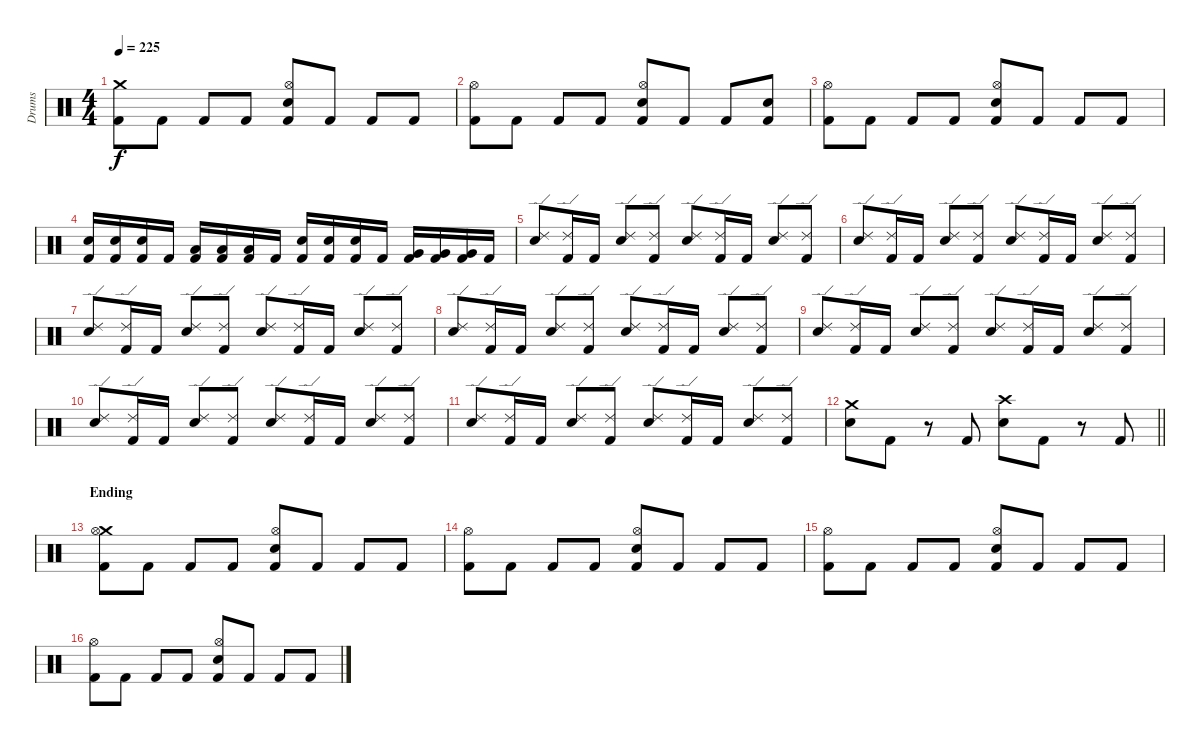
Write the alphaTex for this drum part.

\track ("Drums" "Drums") {instrument percussion}
\staff {score}
\articulation defaults
\ts (4 4)
\tempo 225
\clef neutral
\ks c
("Crash medium (hit)" "Kick (hit) 2").8{dy f} "Kick (hit) 2".8 "Kick (hit) 2".8 "Kick (hit) 2".8 ("Hi-Hat (open)" "Electric Snare (hit)" "Kick (hit) 2").8 "Kick (hit) 2".8 "Kick (hit) 2".8 "Kick (hit) 2".8 |
("Hi-Hat (open)" "Kick (hit) 2").8 "Kick (hit) 2".8 "Kick (hit) 2".8 "Kick (hit) 2".8 ("Hi-Hat (open)" "Electric Snare (hit)" "Kick (hit) 2").8 "Kick (hit) 2".8 "Kick (hit) 2".8 ("Electric Snare (hit)" "Kick (hit) 2").8 |
("Hi-Hat (open)" "Kick (hit) 2").8 "Kick (hit) 2".8 "Kick (hit) 2".8 "Kick (hit) 2".8 ("Hi-Hat (open)" "Electric Snare (hit)" "Kick (hit) 2").8 "Kick (hit) 2".8 "Kick (hit) 2".8 "Kick (hit) 2".8 |
("Electric Snare (hit)" "Kick (hit) 2").16 ("Electric Snare (hit)" "Kick (hit) 2").16 ("Electric Snare (hit)" "Kick (hit) 2").16 "Kick (hit) 2".16 ("Low Tom (hit)" "Kick (hit) 2").16 ("Low Tom (hit)" "Kick (hit) 2").16 ("Low Tom (hit)" "Kick (hit) 2").16 "Kick (hit) 2".16 ("Electric Snare (hit)" "Kick (hit) 2").16 ("Electric Snare (hit)" "Kick (hit) 2").16 ("Electric Snare (hit)" "Kick (hit) 2").16 "Kick (hit) 2".16 ("Very Low Tom (hit)" "Kick (hit) 2").16 ("Very Low Tom (hit)" "Kick (hit) 2").16 ("Very Low Tom (hit)" "Kick (hit) 2").16 "Kick (hit) 2".16 |
("Ride (edge) 2" "Electric Snare (hit)").8 ("Ride (edge) 2" "Kick (hit) 2").16 "Kick (hit) 2".16 ("Ride (edge) 2" "Electric Snare (hit)").8 ("Ride (edge) 2" "Kick (hit) 2").8 ("Ride (edge) 2" "Electric Snare (hit)").8 ("Ride (edge) 2" "Kick (hit) 2").16 "Kick (hit) 2".16 ("Ride (edge) 2" "Electric Snare (hit)").8 ("Ride (edge) 2" "Kick (hit) 2").8 |
("Ride (edge) 2" "Electric Snare (hit)").8 ("Ride (edge) 2" "Kick (hit) 2").16 "Kick (hit) 2".16 ("Ride (edge) 2" "Electric Snare (hit)").8 ("Ride (edge) 2" "Kick (hit) 2").8 ("Ride (edge) 2" "Electric Snare (hit)").8 ("Ride (edge) 2" "Kick (hit) 2").16 "Kick (hit) 2".16 ("Ride (edge) 2" "Electric Snare (hit)").8 ("Ride (edge) 2" "Kick (hit) 2").8 |
("Ride (edge) 2" "Electric Snare (hit)").8 ("Ride (edge) 2" "Kick (hit) 2").16 "Kick (hit) 2".16 ("Ride (edge) 2" "Electric Snare (hit)").8 ("Ride (edge) 2" "Kick (hit) 2").8 ("Ride (edge) 2" "Electric Snare (hit)").8 ("Ride (edge) 2" "Kick (hit) 2").16 "Kick (hit) 2".16 ("Ride (edge) 2" "Electric Snare (hit)").8 ("Ride (edge) 2" "Kick (hit) 2").8 |
("Ride (edge) 2" "Electric Snare (hit)").8 ("Ride (edge) 2" "Kick (hit) 2").16 "Kick (hit) 2".16 ("Ride (edge) 2" "Electric Snare (hit)").8 ("Ride (edge) 2" "Kick (hit) 2").8 ("Ride (edge) 2" "Electric Snare (hit)").8 ("Ride (edge) 2" "Kick (hit) 2").16 "Kick (hit) 2".16 ("Ride (edge) 2" "Electric Snare (hit)").8 ("Ride (edge) 2" "Kick (hit) 2").8 |
("Ride (edge) 2" "Electric Snare (hit)").8 ("Ride (edge) 2" "Kick (hit) 2").16 "Kick (hit) 2".16 ("Ride (edge) 2" "Electric Snare (hit)").8 ("Ride (edge) 2" "Kick (hit) 2").8 ("Ride (edge) 2" "Electric Snare (hit)").8 ("Ride (edge) 2" "Kick (hit) 2").16 "Kick (hit) 2".16 ("Ride (edge) 2" "Electric Snare (hit)").8 ("Ride (edge) 2" "Kick (hit) 2").8 |
("Ride (edge) 2" "Electric Snare (hit)").8 ("Ride (edge) 2" "Kick (hit) 2").16 "Kick (hit) 2".16 ("Ride (edge) 2" "Electric Snare (hit)").8 ("Ride (edge) 2" "Kick (hit) 2").8 ("Ride (edge) 2" "Electric Snare (hit)").8 ("Ride (edge) 2" "Kick (hit) 2").16 "Kick (hit) 2".16 ("Ride (edge) 2" "Electric Snare (hit)").8 ("Ride (edge) 2" "Kick (hit) 2").8 |
("Ride (edge) 2" "Electric Snare (hit)").8 ("Ride (edge) 2" "Kick (hit) 2").16 "Kick (hit) 2".16 ("Ride (edge) 2" "Electric Snare (hit)").8 ("Ride (edge) 2" "Kick (hit) 2").8 ("Ride (edge) 2" "Electric Snare (hit)").8 ("Ride (edge) 2" "Kick (hit) 2").16 "Kick (hit) 2".16 ("Ride (edge) 2" "Electric Snare (hit)").8 ("Ride (edge) 2" "Kick (hit) 2").8 |
\barLineRight lightlight
("Crash medium (hit)" "Electric Snare (hit)").8 "Kick (hit) 2".8 r.8 "Kick (hit) 2".8 ("Crash high (hit)" "Electric Snare (hit)").8 "Kick (hit) 2".8 r.8 "Kick (hit) 2".8 |
\section ("" "Ending")
("Crash medium (hit)" "Hi-Hat (open)" "Kick (hit) 2").8 "Kick (hit) 2".8 "Kick (hit) 2".8 "Kick (hit) 2".8 ("Hi-Hat (open)" "Electric Snare (hit)" "Kick (hit) 2").8 "Kick (hit) 2".8 "Kick (hit) 2".8 "Kick (hit) 2".8 |
("Hi-Hat (open)" "Kick (hit) 2").8 "Kick (hit) 2".8 "Kick (hit) 2".8 "Kick (hit) 2".8 ("Hi-Hat (open)" "Electric Snare (hit)" "Kick (hit) 2").8 "Kick (hit) 2".8 "Kick (hit) 2".8 "Kick (hit) 2".8 |
("Hi-Hat (open)" "Kick (hit) 2").8 "Kick (hit) 2".8 "Kick (hit) 2".8 "Kick (hit) 2".8 ("Hi-Hat (open)" "Electric Snare (hit)" "Kick (hit) 2").8 "Kick (hit) 2".8 "Kick (hit) 2".8 "Kick (hit) 2".8 |
("Hi-Hat (open)" "Kick (hit) 2").8 "Kick (hit) 2".8 "Kick (hit) 2".8 "Kick (hit) 2".8 ("Hi-Hat (open)" "Electric Snare (hit)" "Kick (hit) 2").8 "Kick (hit) 2".8 "Kick (hit) 2".8 "Kick (hit) 2".8
